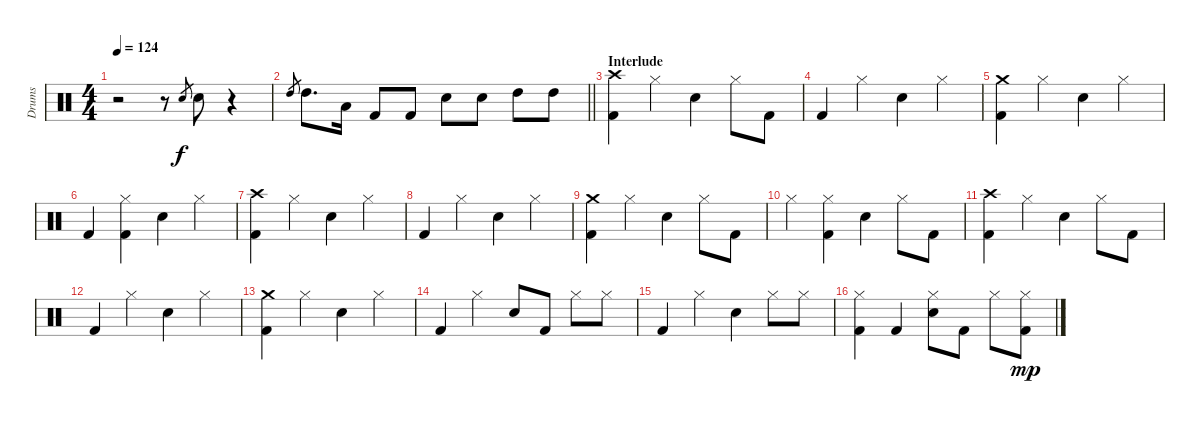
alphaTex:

\track ("Drums" "Drums") {instrument percussion}
\staff {score}
\articulation defaults
\ts (4 4)
\tempo 124
\clef neutral
\ks c
r.2{dy f} r.8 "Snare (hit) 2".8{gr} "Snare (hit) 2".8 r.4 |
\barLineRight lightlight "High Tom (hit)".8{gr} "High Tom (hit)".8{d} "Low Tom (hit)".16 "Kick (hit) 2".8 "Kick (hit) 2".8 "Snare (hit) 2".8 "Snare (hit) 2".8 "High Tom (hit)".8 "High Tom (hit)".8
|
\section ("" "Interlude")
("Kick (hit) 2" "Crash high (hit)").4 "Hi-Hat (closed)".4 "Snare (hit) 2".4 "Hi-Hat (closed)".8 "Kick (hit) 2".8 |
"Kick (hit) 2".4 "Hi-Hat (closed)".4 "Snare (hit) 2".4 "Hi-Hat (closed)".4 |
("Kick (hit) 2" "Crash medium (hit)").4 "Hi-Hat (closed)".4 "Snare (hit) 2".4 "Hi-Hat (closed)".4 |
"Kick (hit) 2".4 ("Kick (hit) 2" "Hi-Hat (closed)").4 "Snare (hit) 2".4 "Hi-Hat (closed)".4 |
("Kick (hit) 2" "Crash high (hit)").4 "Hi-Hat (closed)".4 "Snare (hit) 2".4 "Hi-Hat (closed)".4 |
"Kick (hit) 2".4 "Hi-Hat (closed)".4 "Snare (hit) 2".4 "Hi-Hat (closed)".4 |
("Kick (hit) 2" "Crash medium (hit)").4 "Hi-Hat (closed)".4 "Snare (hit) 2".4 "Hi-Hat (closed)".8 "Kick (hit) 2".8 |
"Hi-Hat (closed)".4 ("Kick (hit) 2" "Hi-Hat (closed)").4 "Snare (hit) 2".4 "Hi-Hat (closed)".8 "Kick (hit) 2".8 |
("Kick (hit) 2" "Crash high (hit)").4 "Hi-Hat (closed)".4 "Snare (hit) 2".4 "Hi-Hat (closed)".8 "Kick (hit) 2".8 |
"Kick (hit) 2".4 "Hi-Hat (closed)".4 "Snare (hit) 2".4 "Hi-Hat (closed)".4 |
("Kick (hit) 2" "Crash medium (hit)").4 "Hi-Hat (closed)".4 "Snare (hit) 2".4 "Hi-Hat (closed)".4 |
"Kick (hit) 2".4 "Hi-Hat (closed)".4 "Snare (hit) 2".8 "Kick (hit) 2".8 "Hi-Hat (closed)".8 "Hi-Hat (closed)".8 |
"Kick (hit) 2".4 "Hi-Hat (closed)".4 "Snare (hit) 2".4 "Hi-Hat (closed)".8 "Hi-Hat (closed)".8 |
("Kick (hit) 2" "Hi-Hat (closed)").4 "Kick (hit) 2".4 ("Snare (hit) 2" "Hi-Hat (closed)").8 "Kick (hit) 2".8 "Hi-Hat (closed)".8 ("Kick (hit) 2" "Hi-Hat (closed)").8{dy mp}
